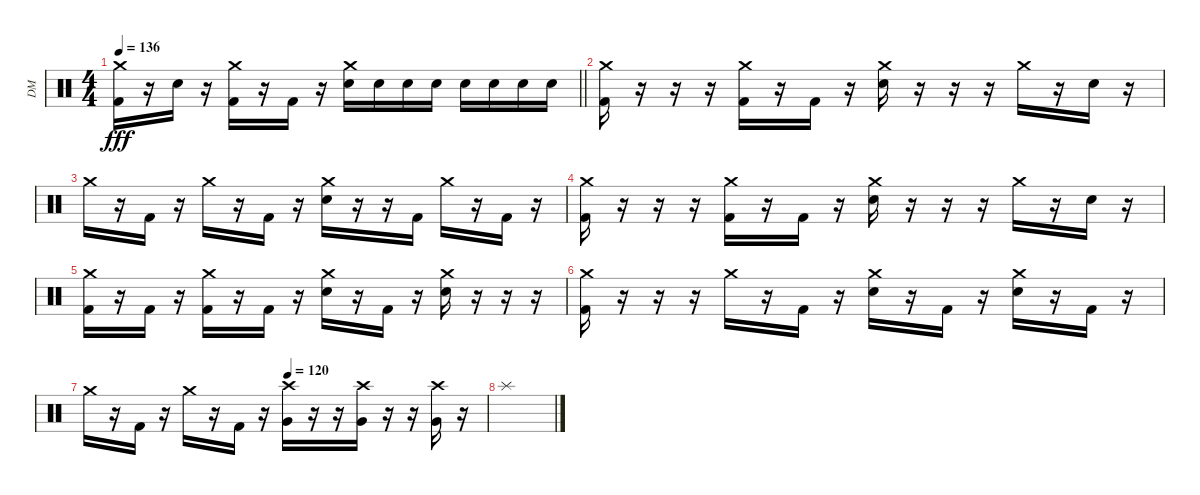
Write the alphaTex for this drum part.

\track ("DM" "DM") {instrument percussion}
\staff {score}
\articulation defaults
\ts (4 4)
\tempo 136
\clef neutral
\barLineRight lightlight
\ks c
("Crash medium (hit)" "Kick (hit) 2").16{dy fff} r.16 "Electric Snare (hit)".16 r.16 ("Crash medium (hit)" "Kick (hit) 2").16 r.16 "Kick (hit) 2".16 r.16 ("Crash medium (hit)" "Electric Snare (hit)").16 "Electric Snare (hit)".16 "Electric Snare (hit)".16 "Electric Snare (hit)".16 "Electric Snare (hit)".16 "Electric Snare (hit)".16 "Electric Snare (hit)".16 "Electric Snare (hit)".16 |
("Crash medium (hit)" "Kick (hit) 2").16 r.16 r.16 r.16 ("Crash medium (hit)" "Kick (hit) 2").16 r.16 "Kick (hit) 2".16 r.16 ("Crash medium (hit)" "Electric Snare (hit)").16 r.16 r.16 r.16 "Crash medium (hit)".16 r.16 "Electric Snare (hit)".16 r.16 |
"Crash medium (hit)".16 r.16 "Kick (hit) 2".16 r.16 "Crash medium (hit)".16 r.16 "Kick (hit) 2".16 r.16 ("Crash medium (hit)" "Electric Snare (hit)").16 r.16 r.16 "Kick (hit) 2".16 "Crash medium (hit)".16 r.16 "Kick (hit) 2".16 r.16 |
("Crash medium (hit)" "Kick (hit) 2").16 r.16 r.16 r.16 ("Crash medium (hit)" "Kick (hit) 2").16 r.16 "Kick (hit) 2".16 r.16 ("Crash medium (hit)" "Electric Snare (hit)").16 r.16 r.16 r.16 "Crash medium (hit)".16 r.16 "Electric Snare (hit)".16 r.16 |
("Crash medium (hit)" "Kick (hit) 2").16 r.16 "Kick (hit) 2".16 r.16 ("Crash medium (hit)" "Kick (hit) 2").16 r.16 "Kick (hit) 2".16 r.16 ("Crash medium (hit)" "Electric Snare (hit)").16 r.16 "Kick (hit) 2".16 r.16 ("Crash medium (hit)" "Electric Snare (hit)").16 r.16 r.16 r.16 |
("Crash medium (hit)" "Kick (hit) 2").16 r.16 r.16 r.16 "Crash medium (hit)".16 r.16 "Kick (hit) 2".16 r.16 ("Crash medium (hit)" "Electric Snare (hit)").16 r.16 "Kick (hit) 2".16 r.16 ("Crash medium (hit)" "Electric Snare (hit)").16 r.16 "Kick (hit) 2".16 r.16 |
\tempo (120 0.5)
"Crash medium (hit)".16 r.16 "Kick (hit) 2".16 r.16 "Crash medium (hit)".16 r.16 "Kick (hit) 2".16 r.16 ("Crash high (hit)" "Very Low Tom (hit)").16 r.16 r.16 ("Crash high (hit)" "Very Low Tom (hit)").16 r.16 r.16 ("Crash high (hit)" "Very Low Tom (hit)").16 r.16 |
"Splash (hit)".1
